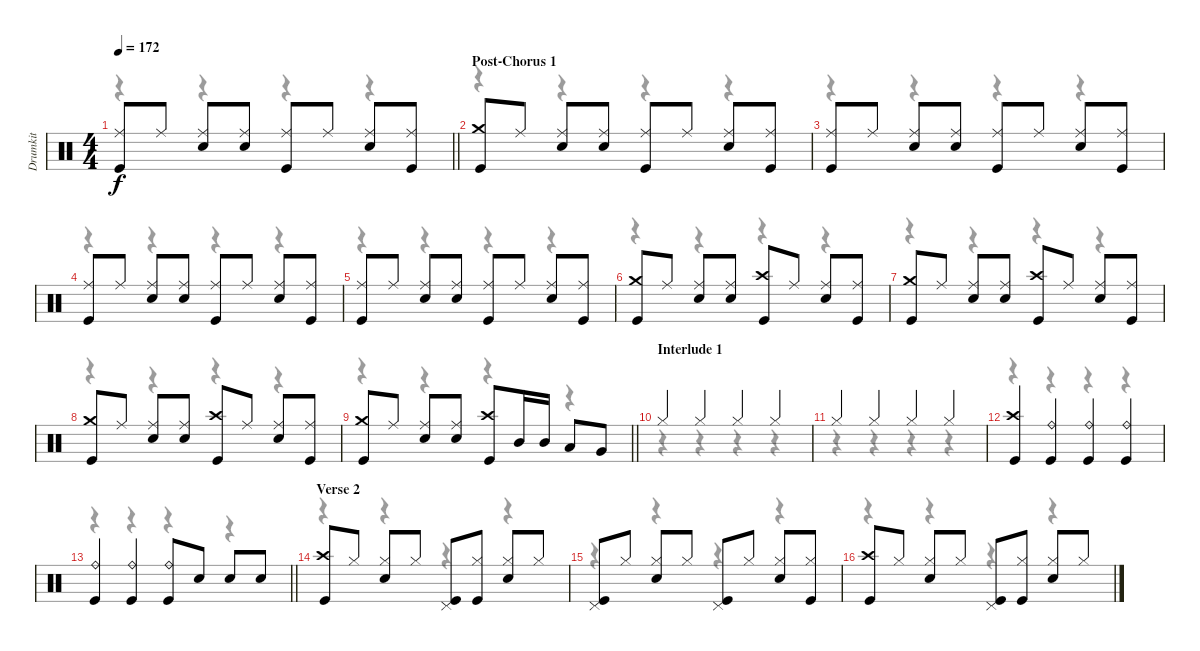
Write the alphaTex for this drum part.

\track ("Drumkit" "Drumkit") {instrument percussion}
\staff {score}
\articulation defaults
\voice
\ts (4 4)
\tempo 172
\clef neutral
\barLineRight lightlight
\ks c
("Ride (middle)" "Kick (hit)").8{dy f} "Ride (middle)".8 ("Ride (middle)" "Snare (hit) 2").8 ("Ride (middle)" "Snare (hit) 2").8 ("Ride (middle)" "Kick (hit)").8 "Ride (middle)".8 ("Ride (middle)" "Snare (hit) 2").8 ("Ride (middle)" "Kick (hit)").8 |
\section ("" "Post-Chorus 1")
("Crash medium (hit)" "Kick (hit)").8 "Ride (middle)".8 ("Ride (middle)" "Snare (hit) 2").8 ("Ride (middle)" "Snare (hit) 2").8 ("Ride (middle)" "Kick (hit)").8 "Ride (middle)".8 ("Ride (middle)" "Snare (hit) 2").8 ("Ride (middle)" "Kick (hit)").8 |
("Ride (middle)" "Kick (hit)").8 "Ride (middle)".8 ("Ride (middle)" "Snare (hit) 2").8 ("Ride (middle)" "Snare (hit) 2").8 ("Ride (middle)" "Kick (hit)").8 "Ride (middle)".8 ("Ride (middle)" "Snare (hit) 2").8 ("Ride (middle)" "Kick (hit)").8 |
("Ride (middle)" "Kick (hit)").8 "Ride (middle)".8 ("Ride (middle)" "Snare (hit) 2").8 ("Ride (middle)" "Snare (hit) 2").8 ("Ride (middle)" "Kick (hit)").8 "Ride (middle)".8 ("Ride (middle)" "Snare (hit) 2").8 ("Ride (middle)" "Kick (hit)").8 |
("Ride (middle)" "Kick (hit)").8 "Ride (middle)".8 ("Ride (middle)" "Snare (hit) 2").8 ("Ride (middle)" "Snare (hit) 2").8 ("Ride (middle)" "Kick (hit)").8 "Ride (middle)".8 ("Ride (middle)" "Snare (hit) 2").8 ("Ride (middle)" "Kick (hit)").8 |
("Crash medium (hit)" "Kick (hit)").8 "Ride (middle)".8 ("Ride (middle)" "Snare (hit) 2").8 ("Ride (middle)" "Snare (hit) 2").8 ("Crash high (hit)" "Kick (hit)").8 "Ride (middle)".8 ("Ride (middle)" "Snare (hit) 2").8 ("Ride (middle)" "Kick (hit)").8 |
("Crash medium (hit)" "Kick (hit)").8 "Ride (middle)".8 ("Ride (middle)" "Snare (hit) 2").8 ("Ride (middle)" "Snare (hit) 2").8 ("Crash high (hit)" "Kick (hit)").8 "Ride (middle)".8 ("Ride (middle)" "Snare (hit) 2").8 ("Ride (middle)" "Kick (hit)").8 |
("Crash medium (hit)" "Kick (hit)").8 "Ride (middle)".8 ("Ride (middle)" "Snare (hit) 2").8 ("Ride (middle)" "Snare (hit) 2").8 ("Crash high (hit)" "Kick (hit)").8 "Ride (middle)".8 ("Ride (middle)" "Snare (hit) 2").8 ("Ride (middle)" "Kick (hit)").8 |
\barLineRight lightlight
("Crash medium (hit)" "Kick (hit)").8 "Ride (middle)".8 ("Ride (middle)" "Snare (hit) 2").8 ("Ride (middle)" "Snare (hit) 2").8 ("Crash high (hit)" "Kick (hit)").8 "Mid Tom (hit)".16 "Mid Tom (hit)".16 "Low Tom (hit)".8 "Very Low Tom (hit)".8 |
\section ("" "Interlude 1")
"Hi-Hat (closed)".4 "Hi-Hat (closed)".4 "Hi-Hat (closed)".4 "Hi-Hat (closed)".4 |
"Hi-Hat (closed)".4 "Hi-Hat (closed)".4 "Hi-Hat (closed)".4 "Hi-Hat (closed)".4 |
("Crash high (hit)" "Kick (hit)").4 ("Ride (bell)" "Kick (hit)").4 ("Ride (bell)" "Kick (hit)").4 ("Ride (bell)" "Kick (hit)").4 |
\barLineRight lightlight
("Ride (bell)" "Kick (hit)").4 ("Ride (bell)" "Kick (hit)").4 ("Ride (bell)" "Kick (hit)").8 "Snare (hit) 2".8 "Snare (hit) 2".8 "Snare (hit) 2".8 |
\section ("" "Verse 2")
("Crash high (hit)" "Kick (hit)").8 "Hi-Hat (closed)".8 ("Hi-Hat (closed)" "Snare (hit) 2").8 "Hi-Hat (closed)".8 ("Pedal Hi-Hat (hit)" "Kick (hit)").8 ("Hi-Hat (closed)" "Kick (hit)").8 ("Hi-Hat (closed)" "Snare (hit) 2").8 "Hi-Hat (closed)".8 |
("Pedal Hi-Hat (hit)" "Kick (hit)").8 "Hi-Hat (closed)".8 ("Hi-Hat (closed)" "Snare (hit) 2").8 "Hi-Hat (closed)".8 ("Pedal Hi-Hat (hit)" "Kick (hit)").8 "Hi-Hat (closed)".8 ("Hi-Hat (closed)" "Snare (hit) 2").8 ("Hi-Hat (closed)" "Kick (hit)").8 |
("Crash high (hit)" "Kick (hit)").8 "Hi-Hat (closed)".8 ("Hi-Hat (closed)" "Snare (hit) 2").8 "Hi-Hat (closed)".8 ("Pedal Hi-Hat (hit)" "Kick (hit)").8 ("Hi-Hat (closed)" "Kick (hit)").8 ("Hi-Hat (closed)" "Snare (hit) 2").8 "Hi-Hat (closed)".8
\voice
\clef neutral
\ottava regular
\simile none
\barLineRight lightlight
\ks c
r.4{dy f} r.4 r.4 r.4 |
r.4 r.4 r.4 r.4 |
r.4 r.4 r.4 r.4 |
r.4 r.4 r.4 r.4 |
r.4 r.4 r.4 r.4 |
r.4 r.4 r.4 r.4 |
r.4 r.4 r.4 r.4 |
r.4 r.4 r.4 r.4 |
\barLineRight lightlight
r.4 r.4 r.4 r.4 |
r.4 r.4 r.4 r.4 |
r.4 r.4 r.4 r.4 |
r.4 r.4 r.4 r.4 |
\barLineRight lightlight
r.4 r.4 r.4 r.4 |
r.4 r.4 r.4 r.4 |
r.4 r.4 r.4 r.4 |
r.4 r.4 r.4 r.4
